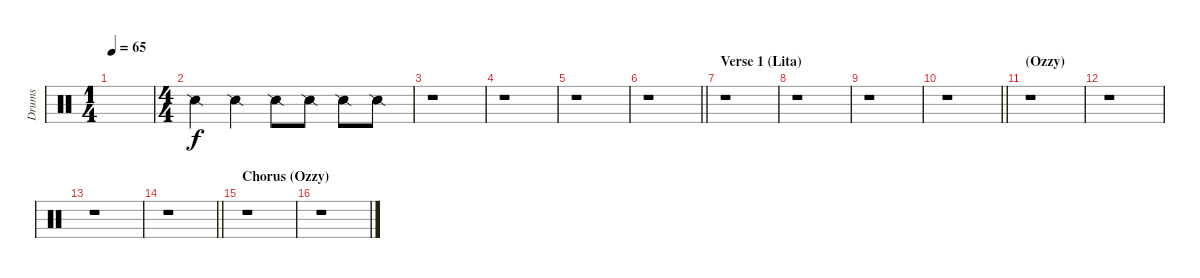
\track ("Drums" "Drums") {instrument percussion}
\staff {score}
\articulation defaults
\ts (1 4)
\tempo 65
\clef neutral
\ks c
|
\ts (4 4)
"Snare (side stick) 2".4 "Snare (side stick) 2".4 "Snare (side stick) 2".8 "Snare (side stick) 2".8 "Snare (side stick) 2".8 "Snare (side stick) 2".8 |
r.1 |
r.1 |
r.1 |
\barLineRight lightlight
r.1 |
\section ("" "Verse 1 (Lita)")
r.1 |
r.1 |
r.1 |
\barLineRight lightlight
r.1 |
\section ("" "(Ozzy)")
r.1 |
r.1 |
r.1 |
\barLineRight lightlight
r.1 |
\section ("" "Chorus (Ozzy)")
r.1 |
r.1
